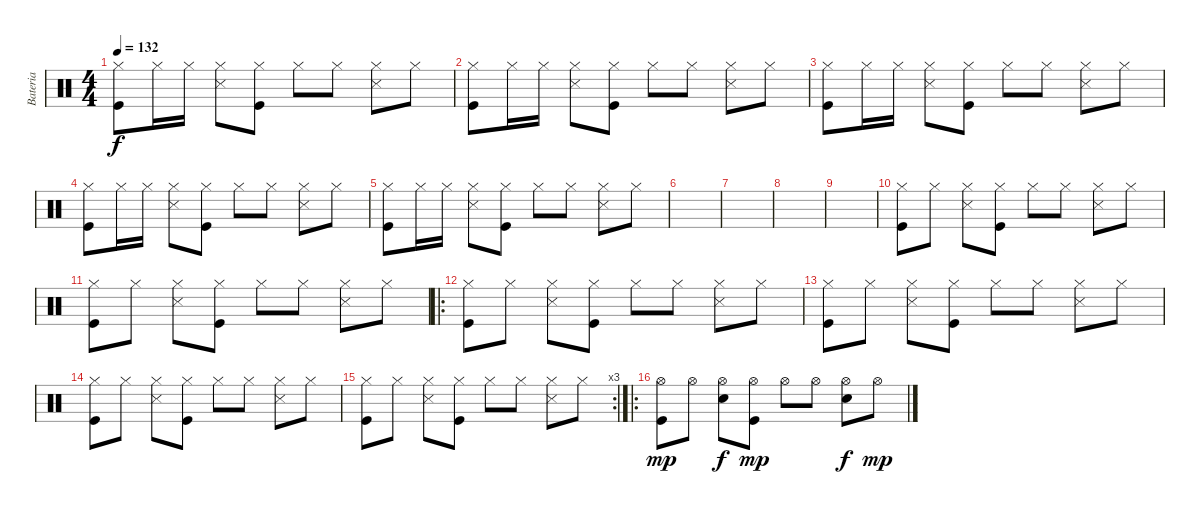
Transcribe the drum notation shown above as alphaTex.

\track ("Bateria" "Bateria") {instrument percussion}
\staff {score}
\articulation defaults
\ts (4 4)
\tempo 132
\clef neutral
\ks c
("Hi-Hat (closed)" "Kick (hit)").8{dy f} "Hi-Hat (closed)".16 "Hi-Hat (closed)".16 ("Hi-Hat (closed)" "Snare (side stick) 3").8 ("Hi-Hat (closed)" "Kick (hit)").8 "Hi-Hat (closed)".8 "Hi-Hat (closed)".8 ("Hi-Hat (closed)" "Snare (side stick) 3").8 "Hi-Hat (closed)".8 |
("Hi-Hat (closed)" "Kick (hit)").8 "Hi-Hat (closed)".16 "Hi-Hat (closed)".16 ("Hi-Hat (closed)" "Snare (side stick) 3").8 ("Hi-Hat (closed)" "Kick (hit)").8 "Hi-Hat (closed)".8 "Hi-Hat (closed)".8 ("Hi-Hat (closed)" "Snare (side stick) 3").8 "Hi-Hat (closed)".8 |
("Hi-Hat (closed)" "Kick (hit)").8 "Hi-Hat (closed)".16 "Hi-Hat (closed)".16 ("Hi-Hat (closed)" "Snare (side stick) 3").8 ("Hi-Hat (closed)" "Kick (hit)").8 "Hi-Hat (closed)".8 "Hi-Hat (closed)".8 ("Hi-Hat (closed)" "Snare (side stick) 3").8 "Hi-Hat (closed)".8 |
("Hi-Hat (closed)" "Kick (hit)").8 "Hi-Hat (closed)".16 "Hi-Hat (closed)".16 ("Hi-Hat (closed)" "Snare (side stick) 3").8 ("Hi-Hat (closed)" "Kick (hit)").8 "Hi-Hat (closed)".8 "Hi-Hat (closed)".8 ("Hi-Hat (closed)" "Snare (side stick) 3").8 "Hi-Hat (closed)".8 |
("Hi-Hat (closed)" "Kick (hit)").8 "Hi-Hat (closed)".16 "Hi-Hat (closed)".16 ("Hi-Hat (closed)" "Snare (side stick) 3").8 ("Hi-Hat (closed)" "Kick (hit)").8 "Hi-Hat (closed)".8 "Hi-Hat (closed)".8 ("Hi-Hat (closed)" "Snare (side stick) 3").8 "Hi-Hat (closed)".8 |
|
|
|
|
("Hi-Hat (closed)" "Kick (hit)").8 "Hi-Hat (closed)".8 ("Hi-Hat (closed)" "Snare (side stick) 3").8 ("Hi-Hat (closed)" "Kick (hit)").8 "Hi-Hat (closed)".8 "Hi-Hat (closed)".8 ("Hi-Hat (closed)" "Snare (side stick) 3").8 "Hi-Hat (closed)".8 |
("Hi-Hat (closed)" "Kick (hit)").8 "Hi-Hat (closed)".8 ("Hi-Hat (closed)" "Snare (side stick) 3").8 ("Hi-Hat (closed)" "Kick (hit)").8 "Hi-Hat (closed)".8 "Hi-Hat (closed)".8 ("Hi-Hat (closed)" "Snare (side stick) 3").8 "Hi-Hat (closed)".8 |
\ro
("Hi-Hat (closed)" "Kick (hit)").8 "Hi-Hat (closed)".8 ("Hi-Hat (closed)" "Snare (side stick) 3").8 ("Hi-Hat (closed)" "Kick (hit)").8 "Hi-Hat (closed)".8 "Hi-Hat (closed)".8 ("Hi-Hat (closed)" "Snare (side stick) 3").8 "Hi-Hat (closed)".8 |
("Hi-Hat (closed)" "Kick (hit)").8 "Hi-Hat (closed)".8 ("Hi-Hat (closed)" "Snare (side stick) 3").8 ("Hi-Hat (closed)" "Kick (hit)").8 "Hi-Hat (closed)".8 "Hi-Hat (closed)".8 ("Hi-Hat (closed)" "Snare (side stick) 3").8 "Hi-Hat (closed)".8 |
("Hi-Hat (closed)" "Kick (hit)").8 "Hi-Hat (closed)".8 ("Hi-Hat (closed)" "Snare (side stick) 3").8 ("Hi-Hat (closed)" "Kick (hit)").8 "Hi-Hat (closed)".8 "Hi-Hat (closed)".8 ("Hi-Hat (closed)" "Snare (side stick) 3").8 "Hi-Hat (closed)".8 |
\rc 3
("Hi-Hat (closed)" "Kick (hit)").8 "Hi-Hat (closed)".8 ("Hi-Hat (closed)" "Snare (side stick) 3").8 ("Hi-Hat (closed)" "Kick (hit)").8 "Hi-Hat (closed)".8 "Hi-Hat (closed)".8 ("Hi-Hat (closed)" "Snare (side stick) 3").8 "Hi-Hat (closed)".8 |
\ro
("Hi-Hat (open)" "Kick (hit)").8{dy mp} "Hi-Hat (open)".8 ("Hi-Hat (open)" "Electric Snare (hit)").8{dy f} ("Hi-Hat (open)" "Kick (hit)").8{dy mp} "Hi-Hat (open)".8 "Hi-Hat (open)".8 ("Hi-Hat (open)" "Electric Snare (hit)").8{dy f} "Hi-Hat (open)".8{dy mp}
